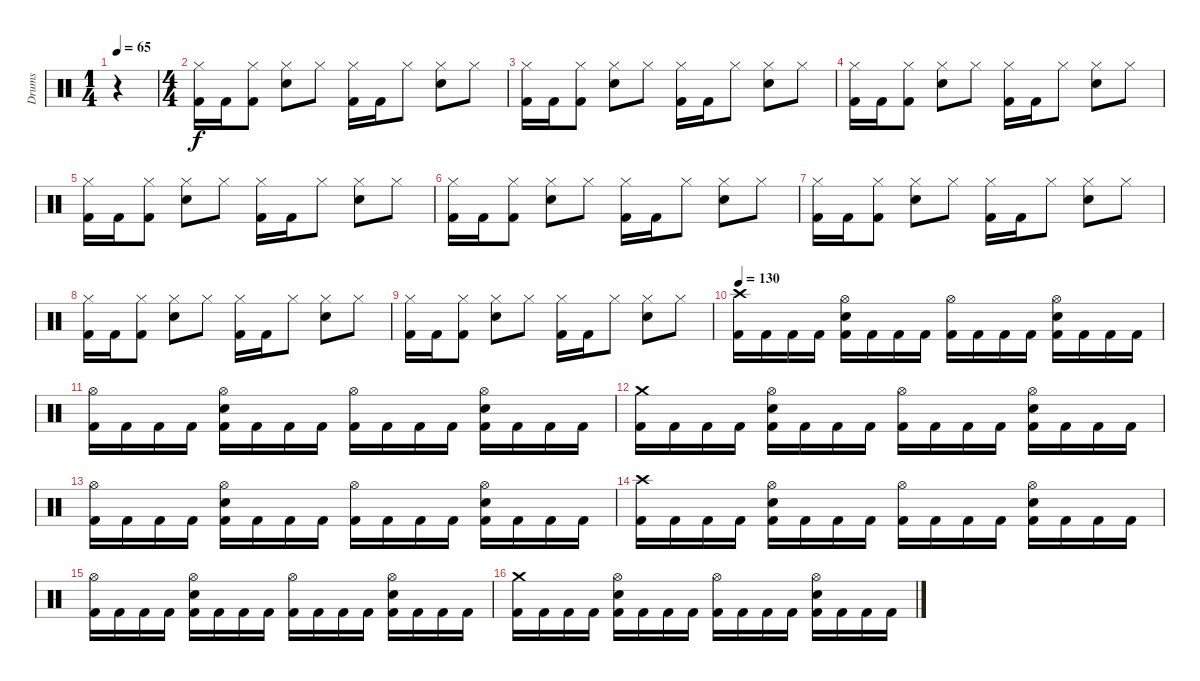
\track ("Drums" "Drums") {instrument percussion}
\staff {score}
\articulation defaults
\ts (1 4)
\tempo 65
\clef neutral
\ks c
r.4{dy f} |
\ts (4 4)
("Hi-Hat (closed)" "Kick (hit) 2").16 "Kick (hit) 2".16 ("Hi-Hat (closed)" "Kick (hit) 2").8 ("Hi-Hat (closed)" "Electric Snare (hit)").8 "Hi-Hat (closed)".8 ("Hi-Hat (closed)" "Kick (hit) 2").16 "Kick (hit) 2".16 "Hi-Hat (closed)".8 ("Hi-Hat (closed)" "Electric Snare (hit)").8 "Hi-Hat (closed)".8 |
("Hi-Hat (closed)" "Kick (hit) 2").16 "Kick (hit) 2".16 ("Hi-Hat (closed)" "Kick (hit) 2").8 ("Hi-Hat (closed)" "Electric Snare (hit)").8 "Hi-Hat (closed)".8 ("Hi-Hat (closed)" "Kick (hit) 2").16 "Kick (hit) 2".16 "Hi-Hat (closed)".8 ("Hi-Hat (closed)" "Electric Snare (hit)").8 "Hi-Hat (closed)".8 |
("Hi-Hat (closed)" "Kick (hit) 2").16 "Kick (hit) 2".16 ("Hi-Hat (closed)" "Kick (hit) 2").8 ("Hi-Hat (closed)" "Electric Snare (hit)").8 "Hi-Hat (closed)".8 ("Hi-Hat (closed)" "Kick (hit) 2").16 "Kick (hit) 2".16 "Hi-Hat (closed)".8 ("Hi-Hat (closed)" "Electric Snare (hit)").8 "Hi-Hat (closed)".8 |
("Hi-Hat (closed)" "Kick (hit) 2").16 "Kick (hit) 2".16 ("Hi-Hat (closed)" "Kick (hit) 2").8 ("Hi-Hat (closed)" "Electric Snare (hit)").8 "Hi-Hat (closed)".8 ("Hi-Hat (closed)" "Kick (hit) 2").16 "Kick (hit) 2".16 "Hi-Hat (closed)".8 ("Hi-Hat (closed)" "Electric Snare (hit)").8 "Hi-Hat (closed)".8 |
("Hi-Hat (closed)" "Kick (hit) 2").16 "Kick (hit) 2".16 ("Hi-Hat (closed)" "Kick (hit) 2").8 ("Hi-Hat (closed)" "Electric Snare (hit)").8 "Hi-Hat (closed)".8 ("Hi-Hat (closed)" "Kick (hit) 2").16 "Kick (hit) 2".16 "Hi-Hat (closed)".8 ("Hi-Hat (closed)" "Electric Snare (hit)").8 "Hi-Hat (closed)".8 |
("Hi-Hat (closed)" "Kick (hit) 2").16 "Kick (hit) 2".16 ("Hi-Hat (closed)" "Kick (hit) 2").8 ("Hi-Hat (closed)" "Electric Snare (hit)").8 "Hi-Hat (closed)".8 ("Hi-Hat (closed)" "Kick (hit) 2").16 "Kick (hit) 2".16 "Hi-Hat (closed)".8 ("Hi-Hat (closed)" "Electric Snare (hit)").8 "Hi-Hat (closed)".8 |
("Hi-Hat (closed)" "Kick (hit) 2").16 "Kick (hit) 2".16 ("Hi-Hat (closed)" "Kick (hit) 2").8 ("Hi-Hat (closed)" "Electric Snare (hit)").8 "Hi-Hat (closed)".8 ("Hi-Hat (closed)" "Kick (hit) 2").16 "Kick (hit) 2".16 "Hi-Hat (closed)".8 ("Hi-Hat (closed)" "Electric Snare (hit)").8 "Hi-Hat (closed)".8 |
("Hi-Hat (closed)" "Kick (hit) 2").16 "Kick (hit) 2".16 ("Hi-Hat (closed)" "Kick (hit) 2").8 ("Hi-Hat (closed)" "Electric Snare (hit)").8 "Hi-Hat (closed)".8 ("Hi-Hat (closed)" "Kick (hit) 2").16 "Kick (hit) 2".16 "Hi-Hat (closed)".8 ("Hi-Hat (closed)" "Electric Snare (hit)").8 "Hi-Hat (closed)".8 |
\tempo 130
("Crash high (hit)" "Kick (hit) 2").16 "Kick (hit) 2".16 "Kick (hit) 2".16 "Kick (hit) 2".16 ("Hi-Hat (open)" "Electric Snare (hit)" "Kick (hit) 2").16 "Kick (hit) 2".16 "Kick (hit) 2".16 "Kick (hit) 2".16 ("Hi-Hat (open)" "Kick (hit) 2").16 "Kick (hit) 2".16 "Kick (hit) 2".16 "Kick (hit) 2".16 ("Hi-Hat (open)" "Electric Snare (hit)" "Kick (hit) 2").16 "Kick (hit) 2".16 "Kick (hit) 2".16 "Kick (hit) 2".16 |
("Hi-Hat (open)" "Kick (hit) 2").16 "Kick (hit) 2".16 "Kick (hit) 2".16 "Kick (hit) 2".16 ("Hi-Hat (open)" "Electric Snare (hit)" "Kick (hit) 2").16 "Kick (hit) 2".16 "Kick (hit) 2".16 "Kick (hit) 2".16 ("Hi-Hat (open)" "Kick (hit) 2").16 "Kick (hit) 2".16 "Kick (hit) 2".16 "Kick (hit) 2".16 ("Hi-Hat (open)" "Electric Snare (hit)" "Kick (hit) 2").16 "Kick (hit) 2".16 "Kick (hit) 2".16 "Kick (hit) 2".16 |
("Crash medium (hit)" "Kick (hit) 2").16 "Kick (hit) 2".16 "Kick (hit) 2".16 "Kick (hit) 2".16 ("Hi-Hat (open)" "Electric Snare (hit)" "Kick (hit) 2").16 "Kick (hit) 2".16 "Kick (hit) 2".16 "Kick (hit) 2".16 ("Hi-Hat (open)" "Kick (hit) 2").16 "Kick (hit) 2".16 "Kick (hit) 2".16 "Kick (hit) 2".16 ("Hi-Hat (open)" "Electric Snare (hit)" "Kick (hit) 2").16 "Kick (hit) 2".16 "Kick (hit) 2".16 "Kick (hit) 2".16 |
("Hi-Hat (open)" "Kick (hit) 2").16 "Kick (hit) 2".16 "Kick (hit) 2".16 "Kick (hit) 2".16 ("Hi-Hat (open)" "Electric Snare (hit)" "Kick (hit) 2").16 "Kick (hit) 2".16 "Kick (hit) 2".16 "Kick (hit) 2".16 ("Hi-Hat (open)" "Kick (hit) 2").16 "Kick (hit) 2".16 "Kick (hit) 2".16 "Kick (hit) 2".16 ("Hi-Hat (open)" "Electric Snare (hit)" "Kick (hit) 2").16 "Kick (hit) 2".16 "Kick (hit) 2".16 "Kick (hit) 2".16 |
("Crash high (hit)" "Kick (hit) 2").16 "Kick (hit) 2".16 "Kick (hit) 2".16 "Kick (hit) 2".16 ("Hi-Hat (open)" "Electric Snare (hit)" "Kick (hit) 2").16 "Kick (hit) 2".16 "Kick (hit) 2".16 "Kick (hit) 2".16 ("Hi-Hat (open)" "Kick (hit) 2").16 "Kick (hit) 2".16 "Kick (hit) 2".16 "Kick (hit) 2".16 ("Hi-Hat (open)" "Electric Snare (hit)" "Kick (hit) 2").16 "Kick (hit) 2".16 "Kick (hit) 2".16 "Kick (hit) 2".16 |
("Hi-Hat (open)" "Kick (hit) 2").16 "Kick (hit) 2".16 "Kick (hit) 2".16 "Kick (hit) 2".16 ("Hi-Hat (open)" "Electric Snare (hit)" "Kick (hit) 2").16 "Kick (hit) 2".16 "Kick (hit) 2".16 "Kick (hit) 2".16 ("Hi-Hat (open)" "Kick (hit) 2").16 "Kick (hit) 2".16 "Kick (hit) 2".16 "Kick (hit) 2".16 ("Hi-Hat (open)" "Electric Snare (hit)" "Kick (hit) 2").16 "Kick (hit) 2".16 "Kick (hit) 2".16 "Kick (hit) 2".16 |
("Crash medium (hit)" "Kick (hit) 2").16 "Kick (hit) 2".16 "Kick (hit) 2".16 "Kick (hit) 2".16 ("Hi-Hat (open)" "Electric Snare (hit)" "Kick (hit) 2").16 "Kick (hit) 2".16 "Kick (hit) 2".16 "Kick (hit) 2".16 ("Hi-Hat (open)" "Kick (hit) 2").16 "Kick (hit) 2".16 "Kick (hit) 2".16 "Kick (hit) 2".16 ("Hi-Hat (open)" "Electric Snare (hit)" "Kick (hit) 2").16 "Kick (hit) 2".16 "Kick (hit) 2".16 "Kick (hit) 2".16
